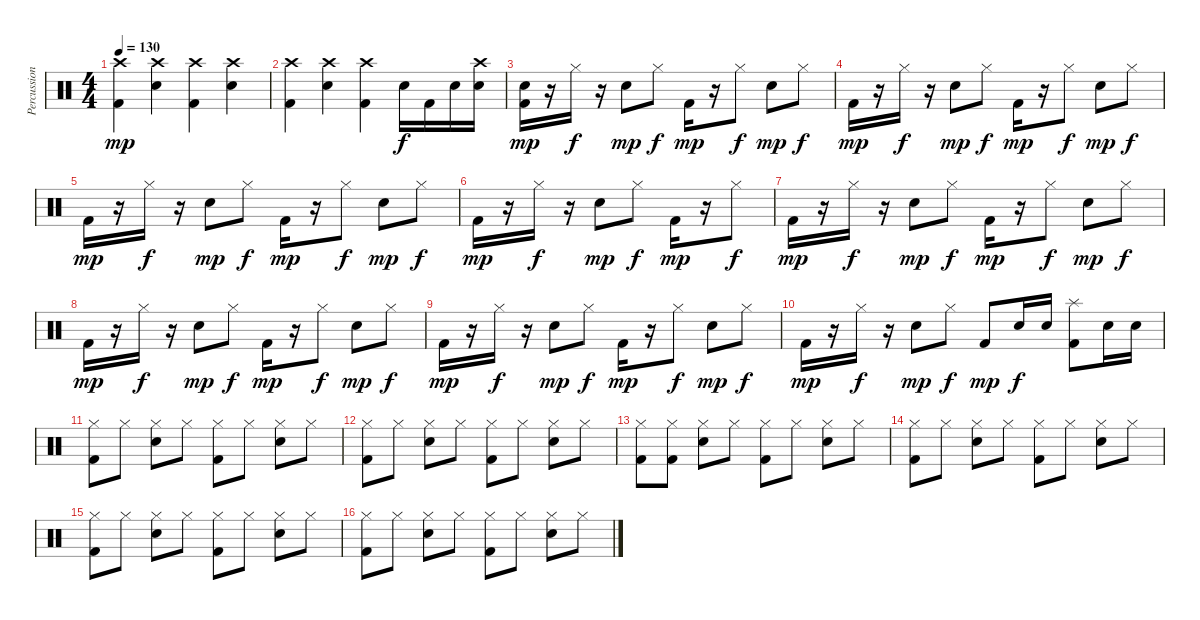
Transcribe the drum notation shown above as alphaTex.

\track ("Percussion" "Percussion") {instrument percussion}
\staff {score}
\articulation defaults
\ts (4 4)
\tempo 130
\clef neutral
\ks c
("Crash high (hit)" "Kick (hit) 2").4{dy mp} ("Crash high (hit)" "Snare (hit) 2").4 ("Crash high (hit)" "Kick (hit) 2").4 ("Crash high (hit)" "Snare (hit) 2").4 |
("Crash high (hit)" "Kick (hit) 2").4 ("Crash high (hit)" "Snare (hit) 2").4 ("Crash high (hit)" "Kick (hit) 2").4 "Snare (hit) 2".16{dy f} "Kick (hit) 2".16 "Snare (hit) 2".16 ("Crash high (hit)" "Snare (hit) 2").16 |
("Snare (hit) 2" "Kick (hit) 2").16{dy mp} r.16 "Hi-Hat (closed)".16{dy f} r.16 "Electric Snare (hit)".8{dy mp} "Hi-Hat (closed)".8{dy f} "Kick (hit) 2".16{dy mp} r.16 "Hi-Hat (closed)".8{dy f} "Electric Snare (hit)".8{dy mp} "Hi-Hat (closed)".8{dy f} |
"Kick (hit) 2".16{dy mp} r.16 "Hi-Hat (closed)".16{dy f} r.16 "Electric Snare (hit)".8{dy mp} "Hi-Hat (closed)".8{dy f} "Kick (hit) 2".16{dy mp} r.16 "Hi-Hat (closed)".8{dy f} "Electric Snare (hit)".8{dy mp} "Hi-Hat (closed)".8{dy f} |
"Kick (hit) 2".16{dy mp} r.16 "Hi-Hat (closed)".16{dy f} r.16 "Electric Snare (hit)".8{dy mp} "Hi-Hat (closed)".8{dy f} "Kick (hit) 2".16{dy mp} r.16 "Hi-Hat (closed)".8{dy f} "Electric Snare (hit)".8{dy mp} "Hi-Hat (closed)".8{dy f} |
"Kick (hit) 2".16{dy mp} r.16 "Hi-Hat (closed)".16{dy f} r.16 "Electric Snare (hit)".8{dy mp} "Hi-Hat (closed)".8{dy f} "Kick (hit) 2".16{dy mp} r.16 "Hi-Hat (closed)".8{dy f} |
"Kick (hit) 2".16{dy mp} r.16 "Hi-Hat (closed)".16{dy f} r.16 "Electric Snare (hit)".8{dy mp} "Hi-Hat (closed)".8{dy f} "Kick (hit) 2".16{dy mp} r.16 "Hi-Hat (closed)".8{dy f} "Electric Snare (hit)".8{dy mp} "Hi-Hat (closed)".8{dy f} |
"Kick (hit) 2".16{dy mp} r.16 "Hi-Hat (closed)".16{dy f} r.16 "Electric Snare (hit)".8{dy mp} "Hi-Hat (closed)".8{dy f} "Kick (hit) 2".16{dy mp} r.16 "Hi-Hat (closed)".8{dy f} "Electric Snare (hit)".8{dy mp} "Hi-Hat (closed)".8{dy f} |
"Kick (hit) 2".16{dy mp} r.16 "Hi-Hat (closed)".16{dy f} r.16 "Electric Snare (hit)".8{dy mp} "Hi-Hat (closed)".8{dy f} "Kick (hit) 2".16{dy mp} r.16 "Hi-Hat (closed)".8{dy f} "Electric Snare (hit)".8{dy mp} "Hi-Hat (closed)".8{dy f} |
"Kick (hit) 2".16{dy mp} r.16 "Hi-Hat (closed)".16{dy f} r.16 "Electric Snare (hit)".8{dy mp} "Hi-Hat (closed)".8{dy f} "Kick (hit) 2".8{dy mp} "Electric Snare (hit)".16{dy f} "Electric Snare (hit)".16 ("Splash (hit)" "Kick (hit) 2").8 "Electric Snare (hit)".16 "Electric Snare (hit)".16 |
("Hi-Hat (closed)" "Kick (hit) 2").8 "Hi-Hat (closed)".8 ("Hi-Hat (closed)" "Electric Snare (hit)").8 "Hi-Hat (closed)".8 ("Hi-Hat (closed)" "Kick (hit) 2").8 "Hi-Hat (closed)".8 ("Hi-Hat (closed)" "Electric Snare (hit)").8 "Hi-Hat (closed)".8 |
("Hi-Hat (closed)" "Kick (hit) 2").8 "Hi-Hat (closed)".8 ("Hi-Hat (closed)" "Electric Snare (hit)").8 "Hi-Hat (closed)".8 ("Hi-Hat (closed)" "Kick (hit) 2").8 "Hi-Hat (closed)".8 ("Hi-Hat (closed)" "Electric Snare (hit)").8 "Hi-Hat (closed)".8 |
("Hi-Hat (closed)" "Kick (hit) 2").8 ("Hi-Hat (closed)" "Kick (hit) 2").8 ("Hi-Hat (closed)" "Electric Snare (hit)").8 "Hi-Hat (closed)".8 ("Hi-Hat (closed)" "Kick (hit) 2").8 "Hi-Hat (closed)".8 ("Hi-Hat (closed)" "Electric Snare (hit)").8 "Hi-Hat (closed)".8 |
("Hi-Hat (closed)" "Kick (hit) 2").8 "Hi-Hat (closed)".8 ("Hi-Hat (closed)" "Electric Snare (hit)").8 "Hi-Hat (closed)".8 ("Hi-Hat (closed)" "Kick (hit) 2").8 "Hi-Hat (closed)".8 ("Hi-Hat (closed)" "Electric Snare (hit)").8 "Hi-Hat (closed)".8 |
("Hi-Hat (closed)" "Kick (hit) 2").8 "Hi-Hat (closed)".8 ("Hi-Hat (closed)" "Electric Snare (hit)").8 "Hi-Hat (closed)".8 ("Hi-Hat (closed)" "Kick (hit) 2").8 "Hi-Hat (closed)".8 ("Hi-Hat (closed)" "Electric Snare (hit)").8 "Hi-Hat (closed)".8 |
("Hi-Hat (closed)" "Kick (hit) 2").8 "Hi-Hat (closed)".8 ("Hi-Hat (closed)" "Electric Snare (hit)").8 "Hi-Hat (closed)".8 ("Hi-Hat (closed)" "Kick (hit) 2").8 "Hi-Hat (closed)".8 ("Hi-Hat (closed)" "Electric Snare (hit)").8 "Hi-Hat (closed)".8
